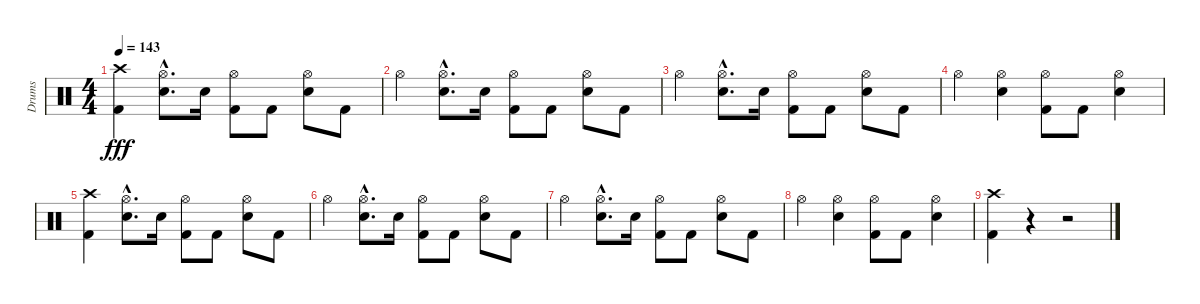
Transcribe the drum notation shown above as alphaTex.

\track ("Drums" "Drums") {instrument percussion}
\staff {score}
\articulation defaults
\ts (4 4)
\tempo 143
\clef neutral
\ks c
("Crash high (hit)" "Kick (hit) 2").4{dy fff} ("Hi-Hat (open)"{hac} "Snare (hit) 2"{hac}).8{d} "Snare (hit) 2".16 ("Hi-Hat (open)" "Kick (hit) 2").8 "Kick (hit) 2".8 ("Hi-Hat (open)" "Snare (hit) 2").8 "Kick (hit) 2".8 |
"Hi-Hat (open)".4 ("Hi-Hat (open)"{hac} "Snare (hit) 2"{hac}).8{d} "Snare (hit) 2".16 ("Hi-Hat (open)" "Kick (hit) 2").8 "Kick (hit) 2".8 ("Hi-Hat (open)" "Snare (hit) 2").8 "Kick (hit) 2".8 |
"Hi-Hat (open)".4 ("Hi-Hat (open)"{hac} "Snare (hit) 2"{hac}).8{d} "Snare (hit) 2".16 ("Hi-Hat (open)" "Kick (hit) 2").8 "Kick (hit) 2".8 ("Hi-Hat (open)" "Snare (hit) 2").8 "Kick (hit) 2".8 |
"Hi-Hat (open)".4 ("Hi-Hat (open)" "Snare (hit) 2").4 ("Hi-Hat (open)" "Kick (hit) 2").8 "Kick (hit) 2".8 ("Hi-Hat (open)" "Snare (hit) 2").4 |
("Crash high (hit)" "Kick (hit) 2").4 ("Hi-Hat (open)"{hac} "Snare (hit) 2"{hac}).8{d} "Snare (hit) 2".16 ("Hi-Hat (open)" "Kick (hit) 2").8 "Kick (hit) 2".8 ("Hi-Hat (open)" "Snare (hit) 2").8 "Kick (hit) 2".8 |
"Hi-Hat (open)".4 ("Hi-Hat (open)"{hac} "Snare (hit) 2"{hac}).8{d} "Snare (hit) 2".16 ("Hi-Hat (open)" "Kick (hit) 2").8 "Kick (hit) 2".8 ("Hi-Hat (open)" "Snare (hit) 2").8 "Kick (hit) 2".8 |
"Hi-Hat (open)".4 ("Hi-Hat (open)"{hac} "Snare (hit) 2"{hac}).8{d} "Snare (hit) 2".16 ("Hi-Hat (open)" "Kick (hit) 2").8 "Kick (hit) 2".8 ("Hi-Hat (open)" "Snare (hit) 2").8 "Kick (hit) 2".8 |
"Hi-Hat (open)".4 ("Hi-Hat (open)" "Snare (hit) 2").4 ("Hi-Hat (open)" "Kick (hit) 2").8 "Kick (hit) 2".8 ("Hi-Hat (open)" "Snare (hit) 2").4 |
("Crash high (hit)" "Kick (hit) 2").4 r.4 r.2
